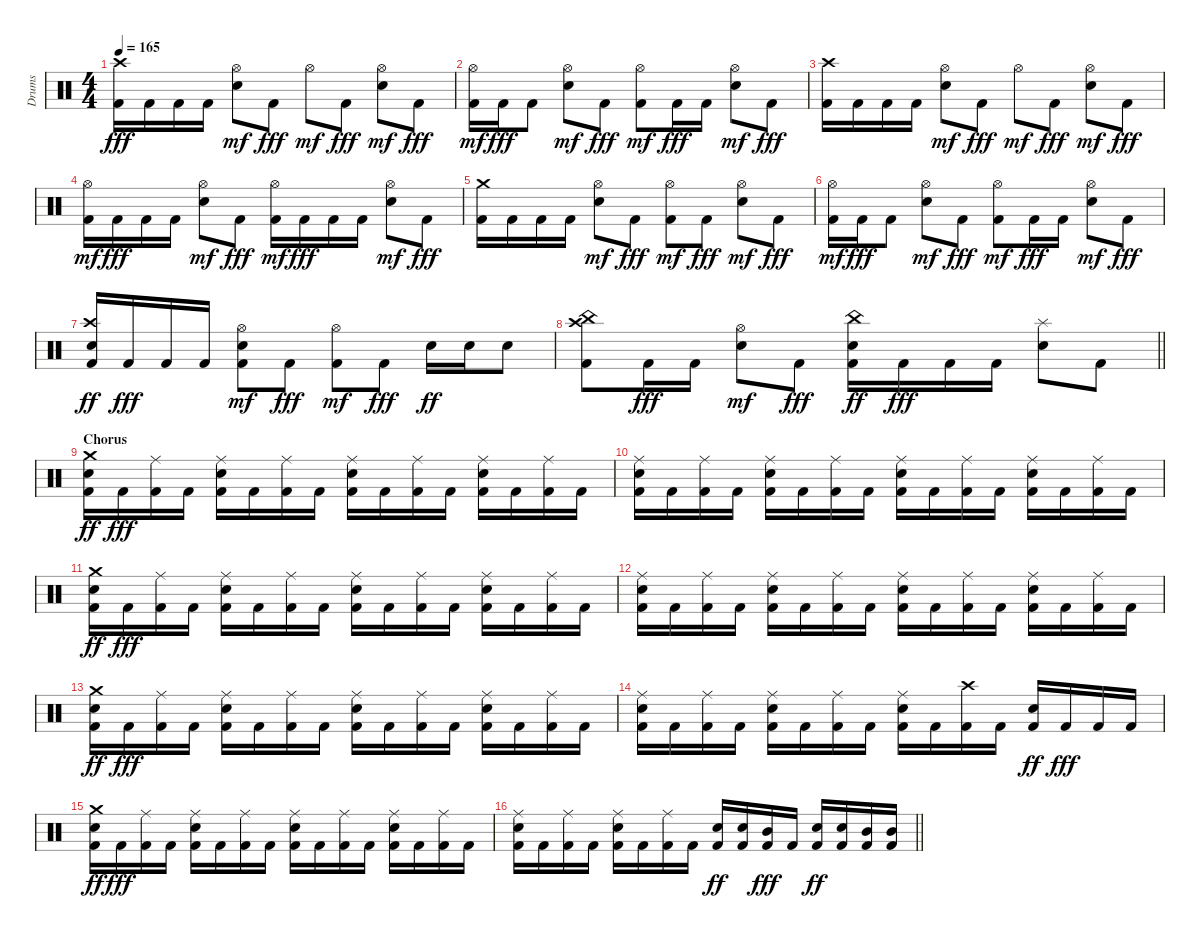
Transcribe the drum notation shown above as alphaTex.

\track ("Drums" "Drums") {instrument percussion}
\staff {score}
\articulation defaults
\ts (4 4)
\tempo 165
\clef neutral
\ks c
("Kick (hit) 2" "Crash high (hit)").16{dy fff} "Kick (hit) 2".16 "Kick (hit) 2".16 "Kick (hit) 2".16 ("Snare (hit) 2" "Hi-Hat (open)").8{dy mf} "Kick (hit) 2".8{dy fff} "Hi-Hat (open)".8{dy mf} "Kick (hit) 2".8{dy fff} ("Snare (hit) 2" "Hi-Hat (open)").8{dy mf} "Kick (hit) 2".8{dy fff} |
("Kick (hit) 2" "Hi-Hat (open)").16{dy mf} "Kick (hit) 2".16{dy fff} "Kick (hit) 2".8 ("Snare (hit) 2" "Hi-Hat (open)").8{dy mf} "Kick (hit) 2".8{dy fff} ("Kick (hit) 2" "Hi-Hat (open)").8{dy mf} "Kick (hit) 2".16{dy fff} "Kick (hit) 2".16 ("Snare (hit) 2" "Hi-Hat (open)").8{dy mf} "Kick (hit) 2".8{dy fff} |
("Kick (hit) 2" "Crash high (hit)").16 "Kick (hit) 2".16 "Kick (hit) 2".16 "Kick (hit) 2".16 ("Snare (hit) 2" "Hi-Hat (open)").8{dy mf} "Kick (hit) 2".8{dy fff} "Hi-Hat (open)".8{dy mf} "Kick (hit) 2".8{dy fff} ("Snare (hit) 2" "Hi-Hat (open)").8{dy mf} "Kick (hit) 2".8{dy fff} |
("Kick (hit) 2" "Hi-Hat (open)").16{dy mf} "Kick (hit) 2".16{dy fff} "Kick (hit) 2".16 "Kick (hit) 2".16 ("Snare (hit) 2" "Hi-Hat (open)").8{dy mf} "Kick (hit) 2".8{dy fff} ("Kick (hit) 2" "Hi-Hat (open)").16{dy mf} "Kick (hit) 2".16{dy fff} "Kick (hit) 2".16 "Kick (hit) 2".16 ("Snare (hit) 2" "Hi-Hat (open)").8{dy mf} "Kick (hit) 2".8{dy fff} |
("Kick (hit) 2" "Crash medium (hit)").16 "Kick (hit) 2".16 "Kick (hit) 2".16 "Kick (hit) 2".16 ("Snare (hit) 2" "Hi-Hat (open)").8{dy mf} "Kick (hit) 2".8{dy fff} ("Kick (hit) 2" "Hi-Hat (open)").8{dy mf} "Kick (hit) 2".8{dy fff} ("Snare (hit) 2" "Hi-Hat (open)").8{dy mf} "Kick (hit) 2".8{dy fff} |
("Kick (hit) 2" "Hi-Hat (open)").16{dy mf} "Kick (hit) 2".16{dy fff} "Kick (hit) 2".8 ("Snare (hit) 2" "Hi-Hat (open)").8{dy mf} "Kick (hit) 2".8{dy fff} ("Kick (hit) 2" "Hi-Hat (open)").8{dy mf} "Kick (hit) 2".16{dy fff} "Kick (hit) 2".16 ("Snare (hit) 2" "Hi-Hat (open)").8{dy mf} "Kick (hit) 2".8{dy fff} |
("Kick (hit) 2" "Snare (hit) 2" "Crash high (hit)").16{dy ff} "Kick (hit) 2".16{dy fff} "Kick (hit) 2".16 "Kick (hit) 2".16 ("Kick (hit) 2" "Snare (hit) 2" "Hi-Hat (open)").8{dy mf} "Kick (hit) 2".8{dy fff} ("Kick (hit) 2" "Hi-Hat (open)").8{dy mf} "Kick (hit) 2".8{dy fff} "Snare (hit) 2".16{dy ff} "Snare (hit) 2".16 "Snare (hit) 2".8 |
\barLineRight lightlight
("Kick (hit) 2" "Crash high (hit)" "China (hit)").8 "Kick (hit) 2".16{dy fff} "Kick (hit) 2".16 ("Snare (hit) 2" "Hi-Hat (open)").8{dy mf} "Kick (hit) 2".8{dy fff} ("Kick (hit) 2" "Snare (hit) 2" "China (hit)").16{dy ff} "Kick (hit) 2".16{dy fff} "Kick (hit) 2".16 "Kick (hit) 2".16 ("Snare (hit) 2" "Splash (hit)").8 "Kick (hit) 2".8 |
\section ("" "Chorus")
("Kick (hit) 2" "Snare (hit) 2" "Crash medium (hit)").16{dy ff} "Kick (hit) 2".16{dy fff} ("Kick (hit) 2" "Ride (middle)").16 "Kick (hit) 2".16 ("Kick (hit) 2" "Snare (hit) 2" "Ride (middle)").16 "Kick (hit) 2".16 ("Kick (hit) 2" "Ride (middle)").16 "Kick (hit) 2".16 ("Kick (hit) 2" "Snare (hit) 2" "Ride (middle)").16 "Kick (hit) 2".16 ("Kick (hit) 2" "Ride (middle)").16 "Kick (hit) 2".16 ("Kick (hit) 2" "Snare (hit) 2" "Ride (middle)").16 "Kick (hit) 2".16 ("Kick (hit) 2" "Ride (middle)").16 "Kick (hit) 2".16 |
("Kick (hit) 2" "Snare (hit) 2" "Ride (middle)").16 "Kick (hit) 2".16 ("Kick (hit) 2" "Ride (middle)").16 "Kick (hit) 2".16 ("Kick (hit) 2" "Snare (hit) 2" "Ride (middle)").16 "Kick (hit) 2".16 ("Kick (hit) 2" "Ride (middle)").16 "Kick (hit) 2".16 ("Kick (hit) 2" "Snare (hit) 2" "Ride (middle)").16 "Kick (hit) 2".16 ("Kick (hit) 2" "Ride (middle)").16 "Kick (hit) 2".16 ("Kick (hit) 2" "Snare (hit) 2" "Ride (middle)").16 "Kick (hit) 2".16 ("Kick (hit) 2" "Ride (middle)").16 "Kick (hit) 2".16 |
("Kick (hit) 2" "Snare (hit) 2" "Crash medium (hit)").16{dy ff} "Kick (hit) 2".16{dy fff} ("Kick (hit) 2" "Ride (middle)").16 "Kick (hit) 2".16 ("Kick (hit) 2" "Snare (hit) 2" "Ride (middle)").16 "Kick (hit) 2".16 ("Kick (hit) 2" "Ride (middle)").16 "Kick (hit) 2".16 ("Kick (hit) 2" "Snare (hit) 2" "Ride (middle)").16 "Kick (hit) 2".16 ("Kick (hit) 2" "Ride (middle)").16 "Kick (hit) 2".16 ("Kick (hit) 2" "Snare (hit) 2" "Ride (middle)").16 "Kick (hit) 2".16 ("Kick (hit) 2" "Ride (middle)").16 "Kick (hit) 2".16 |
("Kick (hit) 2" "Snare (hit) 2" "Ride (middle)").16 "Kick (hit) 2".16 ("Kick (hit) 2" "Ride (middle)").16 "Kick (hit) 2".16 ("Kick (hit) 2" "Snare (hit) 2" "Ride (middle)").16 "Kick (hit) 2".16 ("Kick (hit) 2" "Ride (middle)").16 "Kick (hit) 2".16 ("Kick (hit) 2" "Snare (hit) 2" "Ride (middle)").16 "Kick (hit) 2".16 ("Kick (hit) 2" "Ride (middle)").16 "Kick (hit) 2".16 ("Kick (hit) 2" "Snare (hit) 2" "Ride (middle)").16 "Kick (hit) 2".16 ("Kick (hit) 2" "Ride (middle)").16 "Kick (hit) 2".16 |
("Kick (hit) 2" "Snare (hit) 2" "Crash medium (hit)").16{dy ff} "Kick (hit) 2".16{dy fff} ("Kick (hit) 2" "Ride (middle)").16 "Kick (hit) 2".16 ("Kick (hit) 2" "Snare (hit) 2" "Ride (middle)").16 "Kick (hit) 2".16 ("Kick (hit) 2" "Ride (middle)").16 "Kick (hit) 2".16 ("Kick (hit) 2" "Snare (hit) 2" "Ride (middle)").16 "Kick (hit) 2".16 ("Kick (hit) 2" "Ride (middle)").16 "Kick (hit) 2".16 ("Kick (hit) 2" "Snare (hit) 2" "Ride (middle)").16 "Kick (hit) 2".16 ("Kick (hit) 2" "Ride (middle)").16 "Kick (hit) 2".16 |
("Kick (hit) 2" "Snare (hit) 2" "Ride (middle)").16 "Kick (hit) 2".16 ("Kick (hit) 2" "Ride (middle)").16 "Kick (hit) 2".16 ("Kick (hit) 2" "Snare (hit) 2" "Ride (middle)").16 "Kick (hit) 2".16 ("Kick (hit) 2" "Ride (middle)").16 "Kick (hit) 2".16 ("Kick (hit) 2" "Snare (hit) 2" "Ride (middle)").16 "Kick (hit) 2".16 ("Kick (hit) 2" "Crash high (hit)").16 "Kick (hit) 2".16 ("Kick (hit) 2" "Snare (hit) 2").16{dy ff} "Kick (hit) 2".16{dy fff} "Kick (hit) 2".16 "Kick (hit) 2".16 |
("Kick (hit) 2" "Snare (hit) 2" "Crash medium (hit)").16{dy ff} "Kick (hit) 2".16{dy fff} ("Kick (hit) 2" "Ride (middle)").16 "Kick (hit) 2".16 ("Kick (hit) 2" "Snare (hit) 2" "Ride (middle)").16 "Kick (hit) 2".16 ("Kick (hit) 2" "Ride (middle)").16 "Kick (hit) 2".16 ("Kick (hit) 2" "Snare (hit) 2" "Ride (middle)").16 "Kick (hit) 2".16 ("Kick (hit) 2" "Ride (middle)").16 "Kick (hit) 2".16 ("Kick (hit) 2" "Snare (hit) 2" "Ride (middle)").16 "Kick (hit) 2".16 ("Kick (hit) 2" "Ride (middle)").16 "Kick (hit) 2".16 |
\barLineRight lightlight
("Kick (hit) 2" "Snare (hit) 2" "Ride (middle)").16 "Kick (hit) 2".16 ("Kick (hit) 2" "Ride (middle)").16 "Kick (hit) 2".16 ("Kick (hit) 2" "Snare (hit) 2" "Ride (middle)").16 "Kick (hit) 2".16 ("Kick (hit) 2" "Ride (middle)").16 "Kick (hit) 2".16 ("Kick (hit) 2" "Snare (hit) 2").16{dy ff} ("Kick (hit) 2" "Snare (hit) 2").16 ("Kick (hit) 2" "Mid Tom (hit)").16{dy fff} "Kick (hit) 2".16 ("Kick (hit) 2" "Snare (hit) 2").16{dy ff} ("Kick (hit) 2" "Snare (hit) 2").16 ("Kick (hit) 2" "Mid Tom (hit)").16 ("Kick (hit) 2" "Mid Tom (hit)").16
